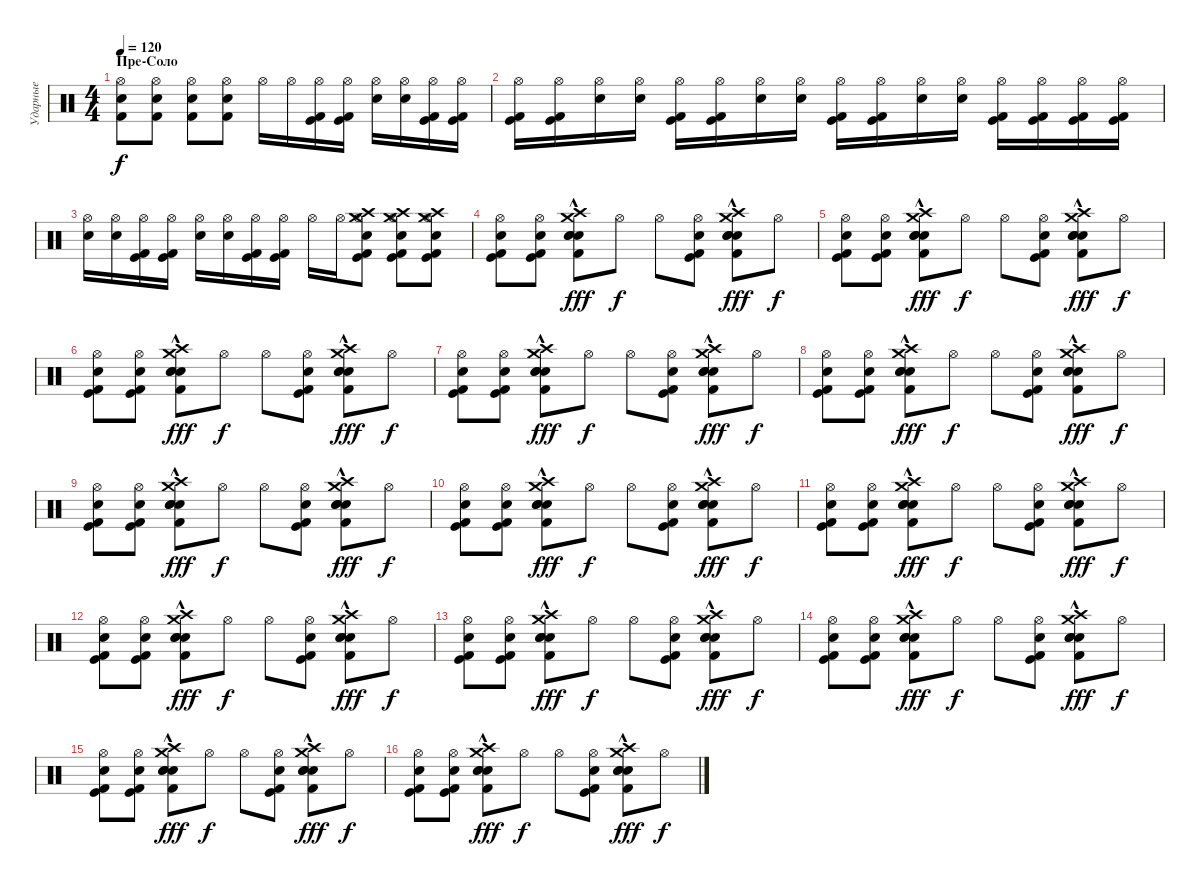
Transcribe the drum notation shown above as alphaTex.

\track ("Ударные" "Ударные") {instrument percussion}
\staff {score}
\articulation defaults
\ts (4 4)
\section ("" "Пре-Соло")
\tempo 120
\clef neutral
\ks c
("Hi-Hat (open)" "Snare (hit) 2" "Kick (hit) 2").8{dy f} ("Hi-Hat (open)" "Snare (hit) 2" "Kick (hit) 2").8 ("Hi-Hat (open)" "Snare (hit) 2" "Kick (hit) 2").8 ("Hi-Hat (open)" "Snare (hit) 2" "Kick (hit) 2").8 "Hi-Hat (open)".16 "Hi-Hat (open)".16 ("Hi-Hat (open)" "Kick (hit)" "Kick (hit) 2").16 ("Hi-Hat (open)" "Kick (hit)" "Kick (hit) 2").16 ("Hi-Hat (open)" "Snare (hit) 2").16 ("Hi-Hat (open)" "Snare (hit) 2").16 ("Hi-Hat (open)" "Kick (hit)" "Kick (hit) 2").16 ("Hi-Hat (open)" "Kick (hit)" "Kick (hit) 2").16 |
("Hi-Hat (open)" "Kick (hit)" "Kick (hit) 2").16 ("Hi-Hat (open)" "Kick (hit)" "Kick (hit) 2").16 ("Hi-Hat (open)" "Snare (hit) 2").16 ("Hi-Hat (open)" "Snare (hit) 2").16 ("Hi-Hat (open)" "Kick (hit)" "Kick (hit) 2").16 ("Hi-Hat (open)" "Kick (hit)" "Kick (hit) 2").16 ("Hi-Hat (open)" "Snare (hit) 2").16 ("Hi-Hat (open)" "Snare (hit) 2").16 ("Hi-Hat (open)" "Kick (hit)" "Kick (hit) 2").16 ("Hi-Hat (open)" "Kick (hit)" "Kick (hit) 2").16 ("Hi-Hat (open)" "Snare (hit) 2").16 ("Hi-Hat (open)" "Snare (hit) 2").16 ("Hi-Hat (open)" "Kick (hit)" "Kick (hit) 2").16 ("Hi-Hat (open)" "Kick (hit)" "Kick (hit) 2").16 ("Hi-Hat (open)" "Kick (hit)" "Kick (hit) 2").16 ("Hi-Hat (open)" "Kick (hit)" "Kick (hit) 2").16 |
("Hi-Hat (open)" "Snare (hit) 2").16 ("Hi-Hat (open)" "Snare (hit) 2").16 ("Hi-Hat (open)" "Kick (hit)" "Kick (hit) 2").16 ("Hi-Hat (open)" "Kick (hit)" "Kick (hit) 2").16 ("Hi-Hat (open)" "Snare (hit) 2").16 ("Hi-Hat (open)" "Snare (hit) 2").16 ("Hi-Hat (open)" "Kick (hit)" "Kick (hit) 2").16 ("Hi-Hat (open)" "Kick (hit)" "Kick (hit) 2").16 "Hi-Hat (open)".16 "Hi-Hat (open)".16 ("Hi-Hat (open)" "Crash medium (hit)" "Crash high (hit)" "Snare (hit) 2" "Kick (hit)" "Kick (hit) 2").8 ("Hi-Hat (open)" "Crash medium (hit)" "Crash high (hit)" "Snare (hit) 2" "Kick (hit)" "Kick (hit) 2").8 ("Hi-Hat (open)" "Crash medium (hit)" "Crash high (hit)" "Snare (hit) 2" "Kick (hit)" "Kick (hit) 2").8 |
("Hi-Hat (open)" "Electric Snare (hit)" "Kick (hit)" "Kick (hit) 2").8 ("Hi-Hat (open)" "Electric Snare (hit)" "Kick (hit)" "Kick (hit) 2").8 ("Snare (hit) 2" "Crash high (hit)"{hac} "Crash medium (hit)"{hac} "Snare (hit) 2"{hac} "Snare (hit) 2"{hac} "Kick (hit) 2").8{dy fff} "Hi-Hat (open)".8{dy f} "Hi-Hat (open)".8 ("Hi-Hat (open)" "Electric Snare (hit)" "Kick (hit)" "Kick (hit) 2").8 ("Snare (hit) 2" "Crash high (hit)"{hac} "Crash medium (hit)"{hac} "Snare (hit) 2"{hac} "Snare (hit) 2"{hac} "Kick (hit) 2").8{dy fff} "Hi-Hat (open)".8{dy f} |
("Hi-Hat (open)" "Electric Snare (hit)" "Kick (hit)" "Kick (hit) 2").8 ("Hi-Hat (open)" "Electric Snare (hit)" "Kick (hit)" "Kick (hit) 2").8 ("Snare (hit) 2" "Crash high (hit)"{hac} "Crash medium (hit)"{hac} "Snare (hit) 2"{hac} "Snare (hit) 2"{hac} "Kick (hit) 2").8{dy fff} "Hi-Hat (open)".8{dy f} "Hi-Hat (open)".8 ("Hi-Hat (open)" "Electric Snare (hit)" "Kick (hit)" "Kick (hit) 2").8 ("Snare (hit) 2" "Crash high (hit)"{hac} "Crash medium (hit)"{hac} "Snare (hit) 2"{hac} "Snare (hit) 2"{hac} "Kick (hit) 2").8{dy fff} "Hi-Hat (open)".8{dy f} |
("Hi-Hat (open)" "Electric Snare (hit)" "Kick (hit)" "Kick (hit) 2").8 ("Hi-Hat (open)" "Electric Snare (hit)" "Kick (hit)" "Kick (hit) 2").8 ("Snare (hit) 2" "Crash high (hit)"{hac} "Crash medium (hit)"{hac} "Snare (hit) 2"{hac} "Snare (hit) 2"{hac} "Kick (hit) 2").8{dy fff} "Hi-Hat (open)".8{dy f} "Hi-Hat (open)".8 ("Hi-Hat (open)" "Electric Snare (hit)" "Kick (hit)" "Kick (hit) 2").8 ("Snare (hit) 2" "Crash high (hit)"{hac} "Crash medium (hit)"{hac} "Snare (hit) 2"{hac} "Snare (hit) 2"{hac} "Kick (hit) 2").8{dy fff} "Hi-Hat (open)".8{dy f} |
("Hi-Hat (open)" "Electric Snare (hit)" "Kick (hit)" "Kick (hit) 2").8 ("Hi-Hat (open)" "Electric Snare (hit)" "Kick (hit)" "Kick (hit) 2").8 ("Snare (hit) 2" "Crash high (hit)"{hac} "Crash medium (hit)"{hac} "Snare (hit) 2"{hac} "Snare (hit) 2"{hac} "Kick (hit) 2").8{dy fff} "Hi-Hat (open)".8{dy f} "Hi-Hat (open)".8 ("Hi-Hat (open)" "Electric Snare (hit)" "Kick (hit)" "Kick (hit) 2").8 ("Snare (hit) 2" "Crash high (hit)"{hac} "Crash medium (hit)"{hac} "Snare (hit) 2"{hac} "Snare (hit) 2"{hac} "Kick (hit) 2").8{dy fff} "Hi-Hat (open)".8{dy f} |
("Hi-Hat (open)" "Electric Snare (hit)" "Kick (hit)" "Kick (hit) 2").8 ("Hi-Hat (open)" "Electric Snare (hit)" "Kick (hit)" "Kick (hit) 2").8 ("Snare (hit) 2" "Crash high (hit)"{hac} "Crash medium (hit)"{hac} "Snare (hit) 2"{hac} "Snare (hit) 2"{hac} "Kick (hit) 2").8{dy fff} "Hi-Hat (open)".8{dy f} "Hi-Hat (open)".8 ("Hi-Hat (open)" "Electric Snare (hit)" "Kick (hit)" "Kick (hit) 2").8 ("Snare (hit) 2" "Crash high (hit)"{hac} "Crash medium (hit)"{hac} "Snare (hit) 2"{hac} "Snare (hit) 2"{hac} "Kick (hit) 2").8{dy fff} "Hi-Hat (open)".8{dy f} |
("Hi-Hat (open)" "Electric Snare (hit)" "Kick (hit)" "Kick (hit) 2").8 ("Hi-Hat (open)" "Electric Snare (hit)" "Kick (hit)" "Kick (hit) 2").8 ("Snare (hit) 2" "Crash high (hit)"{hac} "Crash medium (hit)"{hac} "Snare (hit) 2"{hac} "Snare (hit) 2"{hac} "Kick (hit) 2").8{dy fff} "Hi-Hat (open)".8{dy f} "Hi-Hat (open)".8 ("Hi-Hat (open)" "Electric Snare (hit)" "Kick (hit)" "Kick (hit) 2").8 ("Snare (hit) 2" "Crash high (hit)"{hac} "Crash medium (hit)"{hac} "Snare (hit) 2"{hac} "Snare (hit) 2"{hac} "Kick (hit) 2").8{dy fff} "Hi-Hat (open)".8{dy f} |
("Hi-Hat (open)" "Electric Snare (hit)" "Kick (hit)" "Kick (hit) 2").8 ("Hi-Hat (open)" "Electric Snare (hit)" "Kick (hit)" "Kick (hit) 2").8 ("Snare (hit) 2" "Crash high (hit)"{hac} "Crash medium (hit)"{hac} "Snare (hit) 2"{hac} "Snare (hit) 2"{hac} "Kick (hit) 2").8{dy fff} "Hi-Hat (open)".8{dy f} "Hi-Hat (open)".8 ("Hi-Hat (open)" "Electric Snare (hit)" "Kick (hit)" "Kick (hit) 2").8 ("Snare (hit) 2" "Crash high (hit)"{hac} "Crash medium (hit)"{hac} "Snare (hit) 2"{hac} "Snare (hit) 2"{hac} "Kick (hit) 2").8{dy fff} "Hi-Hat (open)".8{dy f} |
("Hi-Hat (open)" "Electric Snare (hit)" "Kick (hit)" "Kick (hit) 2").8 ("Hi-Hat (open)" "Electric Snare (hit)" "Kick (hit)" "Kick (hit) 2").8 ("Snare (hit) 2" "Crash high (hit)"{hac} "Crash medium (hit)"{hac} "Snare (hit) 2"{hac} "Snare (hit) 2"{hac} "Kick (hit) 2").8{dy fff} "Hi-Hat (open)".8{dy f} "Hi-Hat (open)".8 ("Hi-Hat (open)" "Electric Snare (hit)" "Kick (hit)" "Kick (hit) 2").8 ("Snare (hit) 2" "Crash high (hit)"{hac} "Crash medium (hit)"{hac} "Snare (hit) 2"{hac} "Snare (hit) 2"{hac} "Kick (hit) 2").8{dy fff} "Hi-Hat (open)".8{dy f} |
("Hi-Hat (open)" "Electric Snare (hit)" "Kick (hit)" "Kick (hit) 2").8 ("Hi-Hat (open)" "Electric Snare (hit)" "Kick (hit)" "Kick (hit) 2").8 ("Snare (hit) 2" "Crash high (hit)"{hac} "Crash medium (hit)"{hac} "Snare (hit) 2"{hac} "Snare (hit) 2"{hac} "Kick (hit) 2").8{dy fff} "Hi-Hat (open)".8{dy f} "Hi-Hat (open)".8 ("Hi-Hat (open)" "Electric Snare (hit)" "Kick (hit)" "Kick (hit) 2").8 ("Snare (hit) 2" "Crash high (hit)"{hac} "Crash medium (hit)"{hac} "Snare (hit) 2"{hac} "Snare (hit) 2"{hac} "Kick (hit) 2").8{dy fff} "Hi-Hat (open)".8{dy f} |
("Hi-Hat (open)" "Electric Snare (hit)" "Kick (hit)" "Kick (hit) 2").8 ("Hi-Hat (open)" "Electric Snare (hit)" "Kick (hit)" "Kick (hit) 2").8 ("Snare (hit) 2" "Crash high (hit)"{hac} "Crash medium (hit)"{hac} "Snare (hit) 2"{hac} "Snare (hit) 2"{hac} "Kick (hit) 2").8{dy fff} "Hi-Hat (open)".8{dy f} "Hi-Hat (open)".8 ("Hi-Hat (open)" "Electric Snare (hit)" "Kick (hit)" "Kick (hit) 2").8 ("Snare (hit) 2" "Crash high (hit)"{hac} "Crash medium (hit)"{hac} "Snare (hit) 2"{hac} "Snare (hit) 2"{hac} "Kick (hit) 2").8{dy fff} "Hi-Hat (open)".8{dy f} |
("Hi-Hat (open)" "Electric Snare (hit)" "Kick (hit)" "Kick (hit) 2").8 ("Hi-Hat (open)" "Electric Snare (hit)" "Kick (hit)" "Kick (hit) 2").8 ("Snare (hit) 2" "Crash high (hit)"{hac} "Crash medium (hit)"{hac} "Snare (hit) 2"{hac} "Snare (hit) 2"{hac} "Kick (hit) 2").8{dy fff} "Hi-Hat (open)".8{dy f} "Hi-Hat (open)".8 ("Hi-Hat (open)" "Electric Snare (hit)" "Kick (hit)" "Kick (hit) 2").8 ("Snare (hit) 2" "Crash high (hit)"{hac} "Crash medium (hit)"{hac} "Snare (hit) 2"{hac} "Snare (hit) 2"{hac} "Kick (hit) 2").8{dy fff} "Hi-Hat (open)".8{dy f} |
("Hi-Hat (open)" "Electric Snare (hit)" "Kick (hit)" "Kick (hit) 2").8 ("Hi-Hat (open)" "Electric Snare (hit)" "Kick (hit)" "Kick (hit) 2").8 ("Snare (hit) 2" "Crash high (hit)"{hac} "Crash medium (hit)"{hac} "Snare (hit) 2"{hac} "Snare (hit) 2"{hac} "Kick (hit) 2").8{dy fff} "Hi-Hat (open)".8{dy f} "Hi-Hat (open)".8 ("Hi-Hat (open)" "Electric Snare (hit)" "Kick (hit)" "Kick (hit) 2").8 ("Snare (hit) 2" "Crash high (hit)"{hac} "Crash medium (hit)"{hac} "Snare (hit) 2"{hac} "Snare (hit) 2"{hac} "Kick (hit) 2").8{dy fff} "Hi-Hat (open)".8{dy f} |
("Hi-Hat (open)" "Electric Snare (hit)" "Kick (hit)" "Kick (hit) 2").8 ("Hi-Hat (open)" "Electric Snare (hit)" "Kick (hit)" "Kick (hit) 2").8 ("Snare (hit) 2" "Crash high (hit)"{hac} "Crash medium (hit)"{hac} "Snare (hit) 2"{hac} "Snare (hit) 2"{hac} "Kick (hit) 2").8{dy fff} "Hi-Hat (open)".8{dy f} "Hi-Hat (open)".8 ("Hi-Hat (open)" "Electric Snare (hit)" "Kick (hit)" "Kick (hit) 2").8 ("Snare (hit) 2" "Crash high (hit)"{hac} "Crash medium (hit)"{hac} "Snare (hit) 2"{hac} "Snare (hit) 2"{hac} "Kick (hit) 2").8{dy fff} "Hi-Hat (open)".8{dy f}
